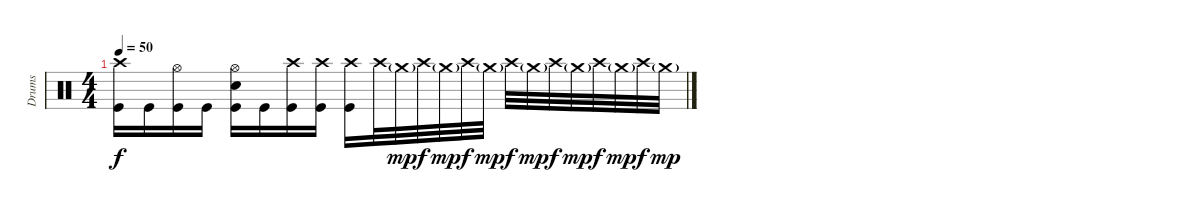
\track ("Drums" "Drums") {instrument percussion}
\staff {score}
\articulation defaults
\ts (4 4)
\tempo 50
\clef neutral
\ks c
("Crash high (hit)" "Kick (hit)").16{dy f} "Kick (hit)".16 ("Hi-Hat (open)" "Kick (hit)").16 "Kick (hit)".16 ("Hi-Hat (open)" "Snare (hit) 2" "Kick (hit)").16 "Kick (hit)".16 ("Crash high (hit)" "Kick (hit)").16 ("Crash high (hit)" "Kick (hit)").16 ("Crash high (hit)" "Kick (hit)").16 "Crash high (hit)".32 "Crash medium (hit)"{g}.32{dy mp} "Crash high (hit)".32{dy f} "Crash medium (hit)"{g}.32{dy mp} "Crash high (hit)".32{dy f} "Crash medium (hit)"{g}.32{dy mp} "Crash high (hit)".32{dy f} "Crash medium (hit)"{g}.32{dy mp} "Crash high (hit)".32{dy f} "Crash medium (hit)"{g}.32{dy mp} "Crash high (hit)".32{dy f} "Crash medium (hit)"{g}.32{dy mp} "Crash high (hit)".32{dy f} "Crash medium (hit)"{g}.32{dy mp}
